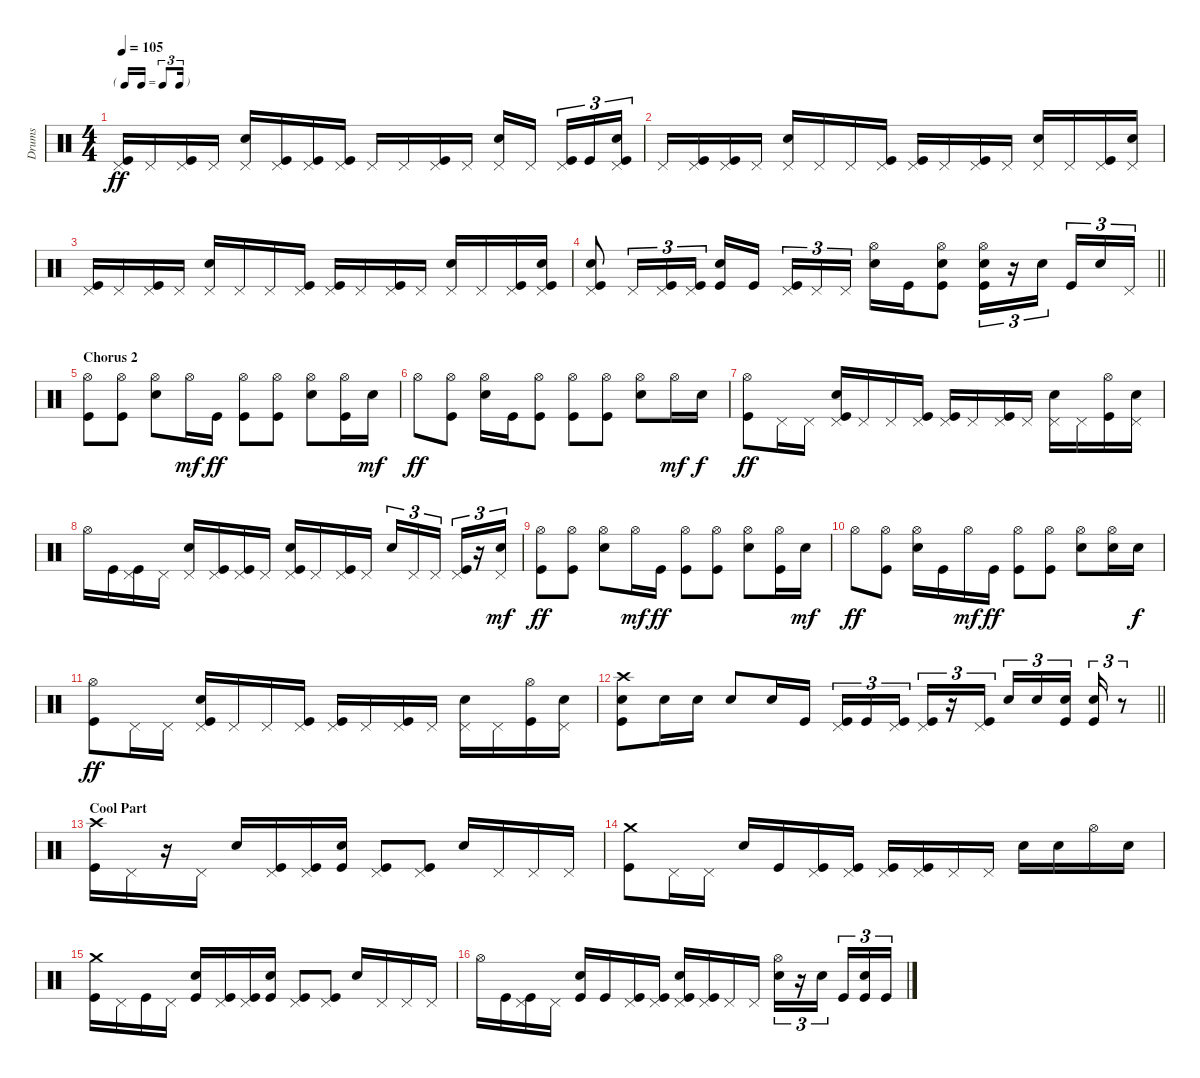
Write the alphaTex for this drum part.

\track ("Drums" "Drums") {instrument percussion}
\staff {score}
\articulation defaults
\ts (4 4)
\tf triplet16th
\tempo 105
\clef neutral
\ks c
("Pedal Hi-Hat (hit)" "Kick (hit)").16{dy ff} "Pedal Hi-Hat (hit)".16 ("Pedal Hi-Hat (hit)" "Kick (hit)").16 "Pedal Hi-Hat (hit)".16 ("Pedal Hi-Hat (hit)" "Snare (hit) 2").16 ("Pedal Hi-Hat (hit)" "Kick (hit)").16 ("Pedal Hi-Hat (hit)" "Kick (hit)").16 ("Pedal Hi-Hat (hit)" "Kick (hit)").16 "Pedal Hi-Hat (hit)".16 "Pedal Hi-Hat (hit)".16 ("Pedal Hi-Hat (hit)" "Kick (hit)").16 "Pedal Hi-Hat (hit)".16 ("Pedal Hi-Hat (hit)" "Snare (hit) 2").16 "Pedal Hi-Hat (hit)".16{beam splitsecondary} ("Pedal Hi-Hat (hit)" "Kick (hit)").16{tu (3 2)} "Kick (hit)".16{tu (3 2)} ("Pedal Hi-Hat (hit)" "Snare (hit) 2" "Kick (hit)").16{tu (3 2)} |
"Pedal Hi-Hat (hit)".16 ("Pedal Hi-Hat (hit)" "Kick (hit)").16 ("Pedal Hi-Hat (hit)" "Kick (hit)").16 "Pedal Hi-Hat (hit)".16 ("Pedal Hi-Hat (hit)" "Snare (hit) 2").16 "Pedal Hi-Hat (hit)".16 "Pedal Hi-Hat (hit)".16 ("Pedal Hi-Hat (hit)" "Kick (hit)").16 ("Pedal Hi-Hat (hit)" "Kick (hit)").16 "Pedal Hi-Hat (hit)".16 ("Pedal Hi-Hat (hit)" "Kick (hit)").16 "Pedal Hi-Hat (hit)".16 ("Pedal Hi-Hat (hit)" "Snare (hit) 2").16 "Pedal Hi-Hat (hit)".16 ("Pedal Hi-Hat (hit)" "Kick (hit)").16 ("Pedal Hi-Hat (hit)" "Snare (hit) 2").16 |
("Pedal Hi-Hat (hit)" "Kick (hit)").16 "Pedal Hi-Hat (hit)".16 ("Pedal Hi-Hat (hit)" "Kick (hit)").16 "Pedal Hi-Hat (hit)".16 ("Pedal Hi-Hat (hit)" "Snare (hit) 2").16 "Pedal Hi-Hat (hit)".16 "Pedal Hi-Hat (hit)".16 ("Pedal Hi-Hat (hit)" "Kick (hit)").16 ("Pedal Hi-Hat (hit)" "Kick (hit)").16 "Pedal Hi-Hat (hit)".16 ("Pedal Hi-Hat (hit)" "Kick (hit)").16 "Pedal Hi-Hat (hit)".16 ("Pedal Hi-Hat (hit)" "Snare (hit) 2").16 "Pedal Hi-Hat (hit)".16 ("Pedal Hi-Hat (hit)" "Kick (hit)").16 ("Pedal Hi-Hat (hit)" "Snare (hit) 2" "Kick (hit)").16 |
\barLineRight lightlight
("Pedal Hi-Hat (hit)" "Snare (hit) 2" "Kick (hit)").8 "Pedal Hi-Hat (hit)".16{tu (3 2)} ("Pedal Hi-Hat (hit)" "Kick (hit)").16{tu (3 2)} ("Pedal Hi-Hat (hit)" "Kick (hit)").16{tu (3 2)} ("Snare (hit) 2" "Kick (hit)").16 "Kick (hit)".16{beam splitsecondary} ("Pedal Hi-Hat (hit)" "Kick (hit)").16{tu (3 2)} "Pedal Hi-Hat (hit)".16{tu (3 2)} "Pedal Hi-Hat (hit)".16{tu (3 2)} ("Hi-Hat (open)" "Snare (hit) 2").16 "Kick (hit)".16 ("Hi-Hat (open)" "Snare (hit) 2" "Kick (hit)").8 ("Hi-Hat (open)" "Snare (hit) 2" "Kick (hit)").16{tu (3 2)} r.16{tu (3 2)} "Snare (hit) 2".16{tu (3 2) beam splitsecondary} "Kick (hit)".16{tu (3 2)} "Snare (hit) 2".16{tu (3 2)} "Pedal Hi-Hat (hit)".16{tu (3 2)} |
\section ("" "Chorus 2")
("Hi-Hat (open)" "Kick (hit)").8 ("Hi-Hat (open)" "Kick (hit)").8 ("Hi-Hat (open)" "Snare (hit) 2").8 "Hi-Hat (open)".16{dy mf} "Kick (hit)".16{dy ff} ("Hi-Hat (open)" "Kick (hit)").8 ("Hi-Hat (open)" "Kick (hit)").8 ("Hi-Hat (open)" "Snare (hit) 2").8 ("Hi-Hat (open)" "Kick (hit)").16 "Snare (hit) 2".16{dy mf} |
"Hi-Hat (open)".8{dy ff} ("Hi-Hat (open)" "Kick (hit)").8 ("Hi-Hat (open)" "Snare (hit) 2").16 "Kick (hit)".16 ("Hi-Hat (open)" "Kick (hit)").8 ("Hi-Hat (open)" "Kick (hit)").8 ("Hi-Hat (open)" "Kick (hit)").8 ("Hi-Hat (open)" "Snare (hit) 2").8 "Hi-Hat (open)".16{dy mf} "Snare (hit) 2".16{dy f} |
("Hi-Hat (open)" "Kick (hit)").8{dy ff} "Pedal Hi-Hat (hit)".16 "Pedal Hi-Hat (hit)".16 ("Pedal Hi-Hat (hit)" "Snare (hit) 2" "Kick (hit)").16 "Pedal Hi-Hat (hit)".16 "Pedal Hi-Hat (hit)".16 ("Pedal Hi-Hat (hit)" "Kick (hit)").16 ("Pedal Hi-Hat (hit)" "Kick (hit)").16 "Pedal Hi-Hat (hit)".16 ("Pedal Hi-Hat (hit)" "Kick (hit)").16 "Pedal Hi-Hat (hit)".16 ("Pedal Hi-Hat (hit)" "Snare (hit) 2").16 "Pedal Hi-Hat (hit)".16 ("Hi-Hat (open)" "Kick (hit)").16 ("Pedal Hi-Hat (hit)" "Snare (hit) 2").16 |
"Hi-Hat (open)".16 "Kick (hit)".16 ("Pedal Hi-Hat (hit)" "Kick (hit)").16 "Pedal Hi-Hat (hit)".16 ("Pedal Hi-Hat (hit)" "Snare (hit) 2").16 ("Pedal Hi-Hat (hit)" "Kick (hit)").16 ("Pedal Hi-Hat (hit)" "Kick (hit)").16 "Pedal Hi-Hat (hit)".16 ("Pedal Hi-Hat (hit)" "Snare (hit) 2" "Kick (hit)").16 "Pedal Hi-Hat (hit)".16 ("Pedal Hi-Hat (hit)" "Kick (hit)").16 "Pedal Hi-Hat (hit)".16 "Snare (hit) 2".16{tu (3 2)} "Pedal Hi-Hat (hit)".16{tu (3 2)} "Pedal Hi-Hat (hit)".16{tu (3 2) beam splitsecondary} ("Pedal Hi-Hat (hit)" "Kick (hit)").16{tu (3 2)} r.16{tu (3 2)} ("Pedal Hi-Hat (hit)" "Snare (hit) 2").16{tu (3 2) dy mf} |
("Hi-Hat (open)" "Kick (hit)").8{dy ff} ("Hi-Hat (open)" "Kick (hit)").8 ("Hi-Hat (open)" "Snare (hit) 2").8 "Hi-Hat (open)".16{dy mf} "Kick (hit)".16{dy ff} ("Hi-Hat (open)" "Kick (hit)").8 ("Hi-Hat (open)" "Kick (hit)").8 ("Hi-Hat (open)" "Snare (hit) 2").8 ("Hi-Hat (open)" "Kick (hit)").16 "Snare (hit) 2".16{dy mf} |
"Hi-Hat (open)".8{dy ff} ("Hi-Hat (open)" "Kick (hit)").8 ("Hi-Hat (open)" "Snare (hit) 2").16 "Kick (hit)".16 "Hi-Hat (open)".16{dy mf} "Kick (hit)".16{dy ff} ("Hi-Hat (open)" "Kick (hit)").8 ("Hi-Hat (open)" "Kick (hit)").8 ("Hi-Hat (open)" "Snare (hit) 2").8 ("Hi-Hat (open)" "Snare (hit) 2").16 "Snare (hit) 2".16{dy f} |
("Hi-Hat (open)" "Kick (hit)").8{dy ff} "Pedal Hi-Hat (hit)".16 "Pedal Hi-Hat (hit)".16 ("Pedal Hi-Hat (hit)" "Snare (hit) 2" "Kick (hit)").16 "Pedal Hi-Hat (hit)".16 "Pedal Hi-Hat (hit)".16 ("Pedal Hi-Hat (hit)" "Kick (hit)").16 ("Pedal Hi-Hat (hit)" "Kick (hit)").16 "Pedal Hi-Hat (hit)".16 ("Pedal Hi-Hat (hit)" "Kick (hit)").16 "Pedal Hi-Hat (hit)".16 ("Pedal Hi-Hat (hit)" "Snare (hit) 2").16 "Pedal Hi-Hat (hit)".16 ("Hi-Hat (open)" "Kick (hit)").16 ("Pedal Hi-Hat (hit)" "Snare (hit) 2").16 |
\barLineRight lightlight
("Crash high (hit)" "Snare (hit) 2" "Kick (hit)").8 "Snare (hit) 2".16 "Snare (hit) 2".16 "Snare (hit) 2".8 "Snare (hit) 2".16 "Kick (hit)".16 ("Pedal Hi-Hat (hit)" "Kick (hit)").16{tu (3 2)} "Kick (hit)".16{tu (3 2)} ("Pedal Hi-Hat (hit)" "Kick (hit)").16{tu (3 2) beam splitsecondary} ("Pedal Hi-Hat (hit)" "Kick (hit)").16{tu (3 2)} r.16{tu (3 2)} ("Pedal Hi-Hat (hit)" "Kick (hit)").16{tu (3 2)} "Snare (hit) 2".16{tu (3 2)} "Snare (hit) 2".16{tu (3 2)} ("Snare (hit) 2" "Kick (hit)").16{tu (3 2) beam splitsecondary} ("Snare (hit) 2" "Kick (hit)").16{tu (3 2)} r.8{tu (3 2)} |
\section ("" "Cool Part")
("Crash high (hit)" "Kick (hit)").16 "Pedal Hi-Hat (hit)".16 r.16 "Pedal Hi-Hat (hit)".16 "Snare (hit) 2".16 ("Pedal Hi-Hat (hit)" "Kick (hit)").16 ("Pedal Hi-Hat (hit)" "Kick (hit)").16 ("Snare (hit) 2" "Kick (hit)").16 ("Pedal Hi-Hat (hit)" "Kick (hit)").8 ("Pedal Hi-Hat (hit)" "Kick (hit)").8 "Snare (hit) 2".16 "Pedal Hi-Hat (hit)".16 "Pedal Hi-Hat (hit)".16 "Pedal Hi-Hat (hit)".16 |
("Crash medium (hit)" "Kick (hit)").8 "Pedal Hi-Hat (hit)".16 "Pedal Hi-Hat (hit)".16 "Snare (hit) 2".16 "Kick (hit)".16 ("Pedal Hi-Hat (hit)" "Kick (hit)").16 ("Pedal Hi-Hat (hit)" "Kick (hit)").16 ("Pedal Hi-Hat (hit)" "Kick (hit)").16 ("Pedal Hi-Hat (hit)" "Kick (hit)").16 "Pedal Hi-Hat (hit)".16 "Pedal Hi-Hat (hit)".16 "Snare (hit) 2".16 "Snare (hit) 2".16 "Hi-Hat (open)".16 "Snare (hit) 2".16 |
("Crash medium (hit)" "Kick (hit)").16 "Pedal Hi-Hat (hit)".16 "Kick (hit)".16 "Pedal Hi-Hat (hit)".16 ("Snare (hit) 2" "Kick (hit)").16 ("Pedal Hi-Hat (hit)" "Kick (hit)").16 ("Pedal Hi-Hat (hit)" "Kick (hit)").16 ("Snare (hit) 2" "Kick (hit)").16 ("Pedal Hi-Hat (hit)" "Kick (hit)").8 ("Pedal Hi-Hat (hit)" "Kick (hit)").8 "Snare (hit) 2".16 "Pedal Hi-Hat (hit)".16 "Pedal Hi-Hat (hit)".16 "Pedal Hi-Hat (hit)".16 |
"Hi-Hat (open)".16 "Kick (hit)".16 ("Pedal Hi-Hat (hit)" "Kick (hit)").16 "Pedal Hi-Hat (hit)".16 ("Snare (hit) 2" "Kick (hit)").16 "Kick (hit)".16 ("Pedal Hi-Hat (hit)" "Kick (hit)").16 ("Pedal Hi-Hat (hit)" "Kick (hit)").16 ("Pedal Hi-Hat (hit)" "Snare (hit) 2" "Kick (hit)").16 ("Pedal Hi-Hat (hit)" "Kick (hit)").16 "Pedal Hi-Hat (hit)".16 "Pedal Hi-Hat (hit)".16 ("Hi-Hat (open)" "Snare (hit) 2").16{tu (3 2)} r.16{tu (3 2)} "Snare (hit) 2".16{tu (3 2) beam splitsecondary} "Kick (hit)".16{tu (3 2)} ("Snare (hit) 2" "Kick (hit)").16{tu (3 2)} "Kick (hit)".16{tu (3 2)}
